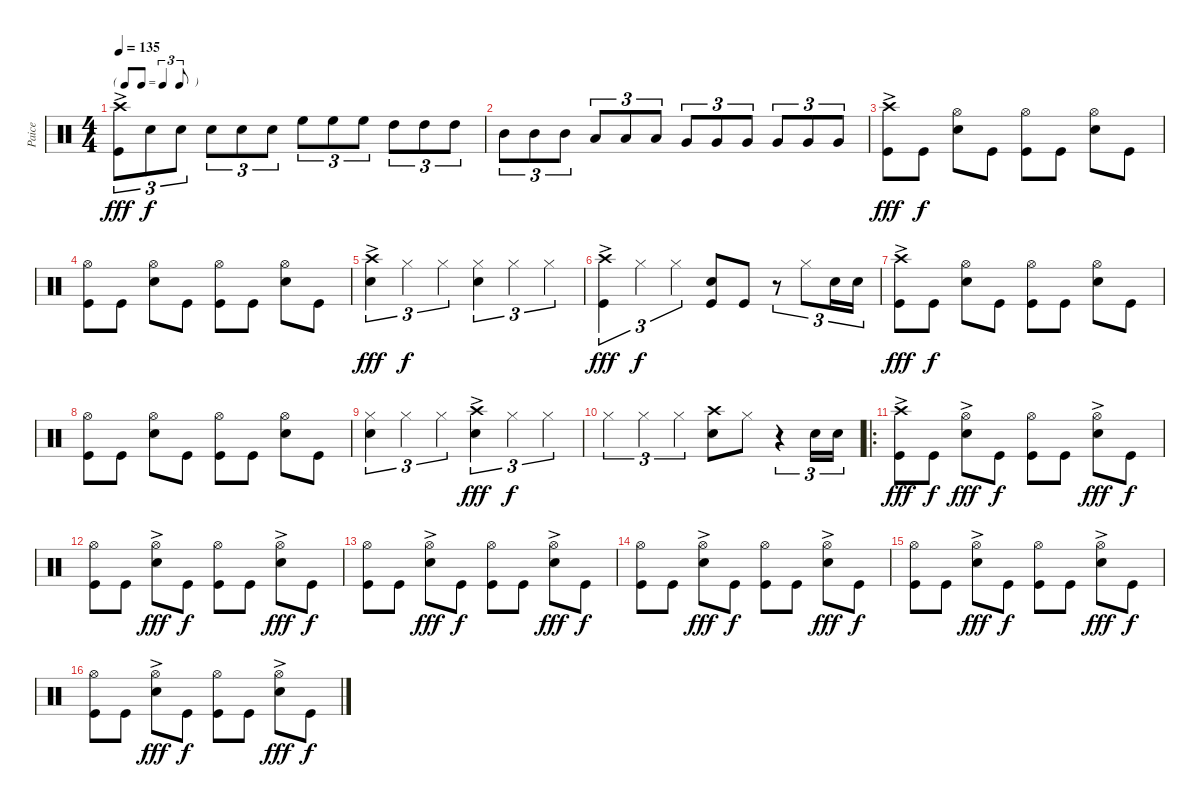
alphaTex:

\track ("Paice" "Paice") {instrument percussion}
\staff {score}
\articulation defaults
\ts (4 4)
\tf triplet8th
\tempo 135
\clef neutral
\ks c
("Crash high (hit)"{ac} "Kick (hit)").8{tu (3 2) dy fff} "Snare (hit) 2".8{tu (3 2) dy f} "Snare (hit) 2".8{tu (3 2)} "Snare (hit) 2".8{tu (3 2)} "Snare (hit) 2".8{tu (3 2)} "Snare (hit) 2".8{tu (3 2)} "High Floor Tom (hit)".8{tu (3 2)} "High Floor Tom (hit)".8{tu (3 2)} "High Floor Tom (hit)".8{tu (3 2)} "High Tom (hit)".8{tu (3 2)} "High Tom (hit)".8{tu (3 2)} "High Tom (hit)".8{tu (3 2)} |
"Mid Tom (hit)".8{tu (3 2)} "Mid Tom (hit)".8{tu (3 2)} "Mid Tom (hit)".8{tu (3 2)} "Low Tom (hit)".8{tu (3 2)} "Low Tom (hit)".8{tu (3 2)} "Low Tom (hit)".8{tu (3 2)} "Very Low Tom (hit)".8{tu (3 2)} "Very Low Tom (hit)".8{tu (3 2)} "Very Low Tom (hit)".8{tu (3 2)} "Very Low Tom (hit)".8{tu (3 2)} "Very Low Tom (hit)".8{tu (3 2)} "Very Low Tom (hit)".8{tu (3 2)} |
("Crash high (hit)"{ac} "Kick (hit)").8{dy fff} "Kick (hit)".8{dy f} ("Hi-Hat (open)" "Snare (hit) 2").8 "Kick (hit)".8 ("Hi-Hat (open)" "Kick (hit)").8 "Kick (hit)".8 ("Hi-Hat (open)" "Snare (hit) 2").8 "Kick (hit)".8 |
("Hi-Hat (open)" "Kick (hit)").8 "Kick (hit)".8 ("Hi-Hat (open)" "Snare (hit) 2").8 "Kick (hit)".8 ("Hi-Hat (open)" "Kick (hit)").8 "Kick (hit)".8 ("Hi-Hat (open)" "Snare (hit) 2").8 "Kick (hit)".8 |
("Crash high (hit)"{ac} "Snare (hit) 2").4{tu (3 2) dy fff} "Hi-Hat (closed)".4{tu (3 2) dy f} "Hi-Hat (closed)".4{tu (3 2)} ("Hi-Hat (closed)" "Snare (hit) 2").4{tu (3 2)} "Hi-Hat (closed)".4{tu (3 2)} "Hi-Hat (closed)".4{tu (3 2)} |
("Crash high (hit)"{ac} "Kick (hit)").4{tu (3 2) dy fff} "Hi-Hat (closed)".4{tu (3 2) dy f} "Hi-Hat (closed)".4{tu (3 2)} ("Kick (hit)" "Snare (hit) 2").8 "Kick (hit)".8 r.8{tu (3 2)} "Hi-Hat (closed)".8{tu (3 2)} "Snare (hit) 2".16{tu (3 2)} "Snare (hit) 2".16{tu (3 2)} |
("Crash high (hit)"{ac} "Kick (hit)").8{dy fff} "Kick (hit)".8{dy f} ("Hi-Hat (open)" "Snare (hit) 2").8 "Kick (hit)".8 ("Hi-Hat (open)" "Kick (hit)").8 "Kick (hit)".8 ("Hi-Hat (open)" "Snare (hit) 2").8 "Kick (hit)".8 |
("Hi-Hat (open)" "Kick (hit)").8 "Kick (hit)".8 ("Hi-Hat (open)" "Snare (hit) 2").8 "Kick (hit)".8 ("Hi-Hat (open)" "Kick (hit)").8 "Kick (hit)".8 ("Hi-Hat (open)" "Snare (hit) 2").8 "Kick (hit)".8 |
("Hi-Hat (closed)" "Snare (hit) 2").4{tu (3 2)} "Hi-Hat (closed)".4{tu (3 2)} "Hi-Hat (closed)".4{tu (3 2)} ("Crash high (hit)"{ac} "Snare (hit) 2").4{tu (3 2) dy fff} "Hi-Hat (closed)".4{tu (3 2) dy f} "Hi-Hat (closed)".4{tu (3 2)} |
"Hi-Hat (closed)".4{tu (3 2)} "Hi-Hat (closed)".4{tu (3 2)} "Hi-Hat (closed)".4{tu (3 2)} ("Crash high (hit)" "Snare (hit) 2").8 "Hi-Hat (closed)".8 r.4{tu (3 2)} "Snare (hit) 2".16{tu (3 2)} "Snare (hit) 2".16{tu (3 2)} |
\ro
("Crash high (hit)"{ac} "Kick (hit)").8{dy fff} "Kick (hit)".8{dy f} ("Snare (hit) 2"{ac} "Hi-Hat (open)").8{dy fff} "Kick (hit)".8{dy f} ("Hi-Hat (open)" "Kick (hit)").8 "Kick (hit)".8 ("Snare (hit) 2"{ac} "Hi-Hat (open)").8{dy fff} "Kick (hit)".8{dy f} |
("Hi-Hat (open)" "Kick (hit)").8 "Kick (hit)".8 ("Hi-Hat (open)" "Snare (hit) 2"{ac}).8{dy fff} "Kick (hit)".8{dy f} ("Hi-Hat (open)" "Kick (hit)").8 "Kick (hit)".8 ("Hi-Hat (open)" "Snare (hit) 2"{ac}).8{dy fff} "Kick (hit)".8{dy f} |
("Hi-Hat (open)" "Kick (hit)").8 "Kick (hit)".8 ("Hi-Hat (open)" "Snare (hit) 2"{ac}).8{dy fff} "Kick (hit)".8{dy f} ("Hi-Hat (open)" "Kick (hit)").8 "Kick (hit)".8 ("Hi-Hat (open)" "Snare (hit) 2"{ac}).8{dy fff} "Kick (hit)".8{dy f} |
("Hi-Hat (open)" "Kick (hit)").8 "Kick (hit)".8 ("Hi-Hat (open)" "Snare (hit) 2"{ac}).8{dy fff} "Kick (hit)".8{dy f} ("Hi-Hat (open)" "Kick (hit)").8 "Kick (hit)".8 ("Hi-Hat (open)" "Snare (hit) 2"{ac}).8{dy fff} "Kick (hit)".8{dy f} |
("Hi-Hat (open)" "Kick (hit)").8 "Kick (hit)".8 ("Hi-Hat (open)" "Snare (hit) 2"{ac}).8{dy fff} "Kick (hit)".8{dy f} ("Hi-Hat (open)" "Kick (hit)").8 "Kick (hit)".8 ("Hi-Hat (open)" "Snare (hit) 2"{ac}).8{dy fff} "Kick (hit)".8{dy f} |
("Hi-Hat (open)" "Kick (hit)").8 "Kick (hit)".8 ("Hi-Hat (open)" "Snare (hit) 2"{ac}).8{dy fff} "Kick (hit)".8{dy f} ("Hi-Hat (open)" "Kick (hit)").8 "Kick (hit)".8 ("Hi-Hat (open)" "Snare (hit) 2"{ac}).8{dy fff} "Kick (hit)".8{dy f}
